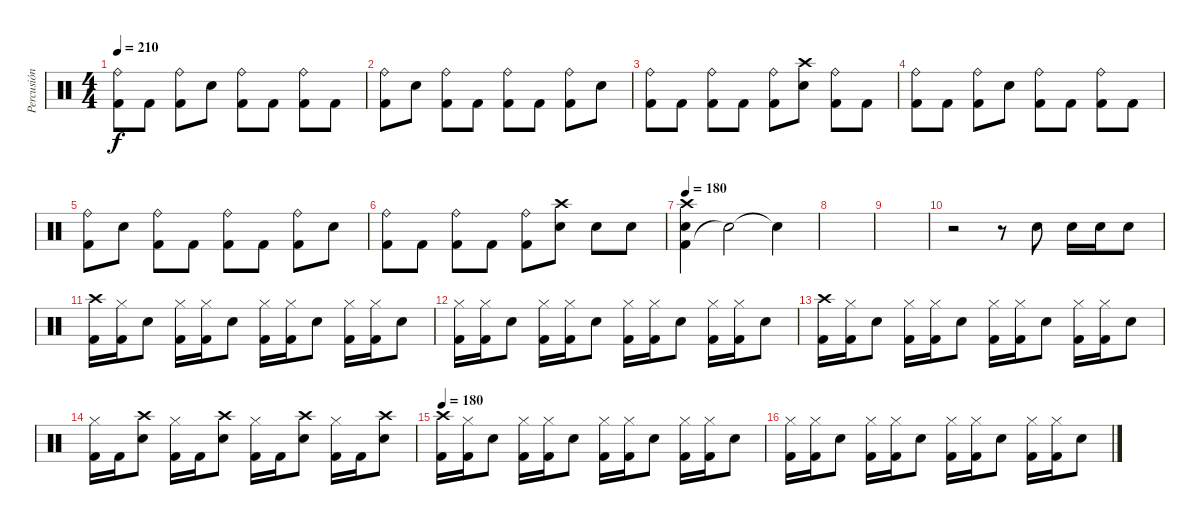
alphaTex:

\track ("Percusión" "Percusión") {instrument percussion}
\staff {score}
\articulation defaults
\ts (4 4)
\tempo 210
\clef neutral
\ks c
("Kick (hit) 2" "Ride (bell)").8{dy f} "Kick (hit) 2".8 ("Kick (hit) 2" "Ride (bell)").8 "Snare (hit) 2".8 ("Kick (hit) 2" "Ride (bell)").8 "Kick (hit) 2".8 ("Kick (hit) 2" "Ride (bell)").8 "Kick (hit) 2".8 |
("Kick (hit) 2" "Ride (bell)").8 "Snare (hit) 2".8 ("Kick (hit) 2" "Ride (bell)").8 "Kick (hit) 2".8 ("Kick (hit) 2" "Ride (bell)").8 "Kick (hit) 2".8 ("Kick (hit) 2" "Ride (bell)").8 "Snare (hit) 2".8 |
("Kick (hit) 2" "Ride (bell)").8 "Kick (hit) 2".8 ("Kick (hit) 2" "Ride (bell)").8 "Kick (hit) 2".8 ("Kick (hit) 2" "Ride (bell)").8 ("Snare (hit) 2" "Crash high (hit)").8 ("Kick (hit) 2" "Ride (bell)").8 "Kick (hit) 2".8 |
("Kick (hit) 2" "Ride (bell)").8 "Kick (hit) 2".8 ("Kick (hit) 2" "Ride (bell)").8 "Snare (hit) 2".8 ("Kick (hit) 2" "Ride (bell)").8 "Kick (hit) 2".8 ("Kick (hit) 2" "Ride (bell)").8 "Kick (hit) 2".8 |
("Kick (hit) 2" "Ride (bell)").8 "Snare (hit) 2".8 ("Kick (hit) 2" "Ride (bell)").8 "Kick (hit) 2".8 ("Kick (hit) 2" "Ride (bell)").8 "Kick (hit) 2".8 ("Kick (hit) 2" "Ride (bell)").8 "Snare (hit) 2".8 |
("Kick (hit) 2" "Ride (bell)").8 "Kick (hit) 2".8 ("Kick (hit) 2" "Ride (bell)").8 "Kick (hit) 2".8 ("Kick (hit) 2" "Ride (bell)").8 ("Snare (hit) 2" "Crash high (hit)").8 "Snare (hit) 2".8 "Snare (hit) 2".8 |
\tempo 180
("Kick (hit) 2" "Snare (hit) 2" "Crash high (hit)").4 "Snare (hit)"{t}.2 "Snare (hit)"{t}.4 |
|
|
r.2 r.8 "Snare (hit) 2".8 "Snare (hit) 2".16 "Snare (hit) 2".16 "Snare (hit) 2".8 |
("Kick (hit) 2" "Crash high (hit)").16 ("Kick (hit) 2" "Hi-Hat (closed)").16 "Snare (hit) 2".8 ("Kick (hit) 2" "Hi-Hat (closed)").16 ("Kick (hit) 2" "Hi-Hat (closed)").16 "Snare (hit) 2".8 ("Kick (hit) 2" "Hi-Hat (closed)").16 ("Kick (hit) 2" "Hi-Hat (closed)").16 "Snare (hit) 2".8 ("Kick (hit) 2" "Hi-Hat (closed)").16 ("Kick (hit) 2" "Hi-Hat (closed)").16 "Snare (hit) 2".8 |
("Kick (hit) 2" "Hi-Hat (closed)").16 ("Kick (hit) 2" "Hi-Hat (closed)").16 "Snare (hit) 2".8 ("Kick (hit) 2" "Hi-Hat (closed)").16 ("Kick (hit) 2" "Hi-Hat (closed)").16 "Snare (hit) 2".8 ("Kick (hit) 2" "Hi-Hat (closed)").16 ("Kick (hit) 2" "Hi-Hat (closed)").16 "Snare (hit) 2".8 ("Kick (hit) 2" "Hi-Hat (closed)").16 ("Kick (hit) 2" "Hi-Hat (closed)").16 "Snare (hit) 2".8 |
("Kick (hit) 2" "Crash high (hit)").16 ("Kick (hit) 2" "Hi-Hat (closed)").16 "Snare (hit) 2".8 ("Kick (hit) 2" "Hi-Hat (closed)").16 ("Kick (hit) 2" "Hi-Hat (closed)").16 "Snare (hit) 2".8 ("Kick (hit) 2" "Hi-Hat (closed)").16 ("Kick (hit) 2" "Hi-Hat (closed)").16 "Snare (hit) 2".8 ("Kick (hit) 2" "Hi-Hat (closed)").16 ("Kick (hit) 2" "Hi-Hat (closed)").16 "Snare (hit) 2".8 |
("Kick (hit) 2" "Hi-Hat (closed)").16 "Kick (hit) 2".16 ("Snare (hit) 2" "Crash high (hit)").8 ("Kick (hit) 2" "Hi-Hat (closed)").16 "Kick (hit) 2".16 ("Snare (hit) 2" "Crash high (hit)").8 ("Kick (hit) 2" "Hi-Hat (closed)").16 "Kick (hit) 2".16 ("Snare (hit) 2" "Crash high (hit)").8 ("Kick (hit) 2" "Hi-Hat (closed)").16 "Kick (hit) 2".16 ("Snare (hit) 2" "Crash high (hit)").8 |
\tempo 180
("Kick (hit) 2" "Crash high (hit)").16 ("Kick (hit) 2" "Hi-Hat (closed)").16 "Snare (hit) 2".8 ("Kick (hit) 2" "Hi-Hat (closed)").16 ("Kick (hit) 2" "Hi-Hat (closed)").16 "Snare (hit) 2".8 ("Kick (hit) 2" "Hi-Hat (closed)").16 ("Kick (hit) 2" "Hi-Hat (closed)").16 "Snare (hit) 2".8 ("Kick (hit) 2" "Hi-Hat (closed)").16 ("Kick (hit) 2" "Hi-Hat (closed)").16 "Snare (hit) 2".8 |
("Kick (hit) 2" "Hi-Hat (closed)").16 ("Kick (hit) 2" "Hi-Hat (closed)").16 "Snare (hit) 2".8 ("Kick (hit) 2" "Hi-Hat (closed)").16 ("Kick (hit) 2" "Hi-Hat (closed)").16 "Snare (hit) 2".8 ("Kick (hit) 2" "Hi-Hat (closed)").16 ("Kick (hit) 2" "Hi-Hat (closed)").16 "Snare (hit) 2".8 ("Kick (hit) 2" "Hi-Hat (closed)").16 ("Kick (hit) 2" "Hi-Hat (closed)").16 "Snare (hit) 2".8
